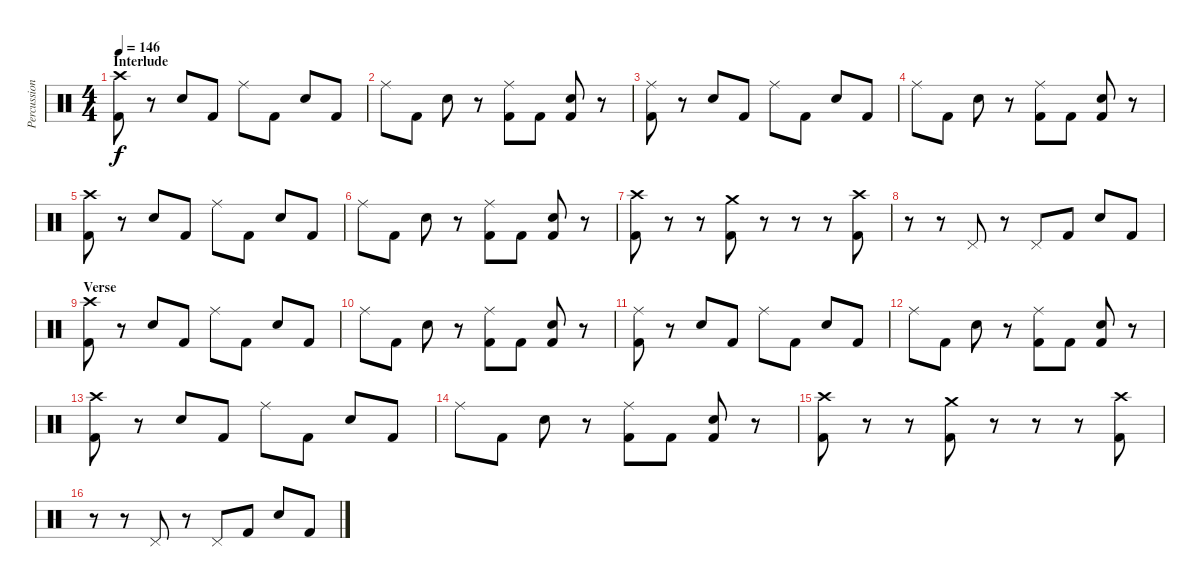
\track ("Percussion" "Percussion") {instrument percussion}
\staff {score}
\articulation defaults
\ts (4 4)
\section ("" "Interlude")
\tempo 146
\clef neutral
\ks c
("Crash high (hit)" "Kick (hit) 2").8{dy f} r.8 "Electric Snare (hit)".8 "Kick (hit) 2".8 "Ride (middle)".8 "Kick (hit) 2".8 "Electric Snare (hit)".8 "Kick (hit) 2".8 |
"Ride (middle)".8 "Kick (hit) 2".8 "Electric Snare (hit)".8 r.8 ("Ride (middle)" "Kick (hit) 2").8 "Kick (hit) 2".8 ("Electric Snare (hit)" "Kick (hit) 2").8 r.8 |
("Ride (middle)" "Kick (hit) 2").8 r.8 "Electric Snare (hit)".8 "Kick (hit) 2".8 "Ride (middle)".8 "Kick (hit) 2".8 "Electric Snare (hit)".8 "Kick (hit) 2".8 |
"Ride (middle)".8 "Kick (hit) 2".8 "Electric Snare (hit)".8 r.8 ("Ride (middle)" "Kick (hit) 2").8 "Kick (hit) 2".8 ("Electric Snare (hit)" "Kick (hit) 2").8 r.8 |
("Crash high (hit)" "Kick (hit) 2").8 r.8 "Electric Snare (hit)".8 "Kick (hit) 2".8 "Ride (middle)".8 "Kick (hit) 2".8 "Electric Snare (hit)".8 "Kick (hit) 2".8 |
"Ride (middle)".8 "Kick (hit) 2".8 "Electric Snare (hit)".8 r.8 ("Ride (middle)" "Kick (hit) 2").8 "Kick (hit) 2".8 ("Electric Snare (hit)" "Kick (hit) 2").8 r.8 |
("Crash high (hit)" "Kick (hit) 2").8 r.8 r.8 ("Crash medium (hit)" "Kick (hit) 2").8 r.8 r.8 r.8 ("Crash high (hit)" "Kick (hit) 2").8 |
r.8 r.8 "Pedal Hi-Hat (hit)".8 r.8 "Pedal Hi-Hat (hit)".8 "Kick (hit) 2".8 "Electric Snare (hit)".8 "Kick (hit) 2".8 |
\section ("" "Verse")
("Crash high (hit)" "Kick (hit) 2").8 r.8 "Electric Snare (hit)".8 "Kick (hit) 2".8 "Ride (middle)".8 "Kick (hit) 2".8 "Electric Snare (hit)".8 "Kick (hit) 2".8 |
"Ride (middle)".8 "Kick (hit) 2".8 "Electric Snare (hit)".8 r.8 ("Ride (middle)" "Kick (hit) 2").8 "Kick (hit) 2".8 ("Electric Snare (hit)" "Kick (hit) 2").8 r.8 |
("Ride (middle)" "Kick (hit) 2").8 r.8 "Electric Snare (hit)".8 "Kick (hit) 2".8 "Ride (middle)".8 "Kick (hit) 2".8 "Electric Snare (hit)".8 "Kick (hit) 2".8 |
"Ride (middle)".8 "Kick (hit) 2".8 "Electric Snare (hit)".8 r.8 ("Ride (middle)" "Kick (hit) 2").8 "Kick (hit) 2".8 ("Electric Snare (hit)" "Kick (hit) 2").8 r.8 |
("Crash high (hit)" "Kick (hit) 2").8 r.8 "Electric Snare (hit)".8 "Kick (hit) 2".8 "Ride (middle)".8 "Kick (hit) 2".8 "Electric Snare (hit)".8 "Kick (hit) 2".8 |
"Ride (middle)".8 "Kick (hit) 2".8 "Electric Snare (hit)".8 r.8 ("Ride (middle)" "Kick (hit) 2").8 "Kick (hit) 2".8 ("Electric Snare (hit)" "Kick (hit) 2").8 r.8 |
("Crash high (hit)" "Kick (hit) 2").8 r.8 r.8 ("Crash medium (hit)" "Kick (hit) 2").8 r.8 r.8 r.8 ("Crash high (hit)" "Kick (hit) 2").8 |
r.8 r.8 "Pedal Hi-Hat (hit)".8 r.8 "Pedal Hi-Hat (hit)".8 "Kick (hit) 2".8 "Electric Snare (hit)".8 "Kick (hit) 2".8
